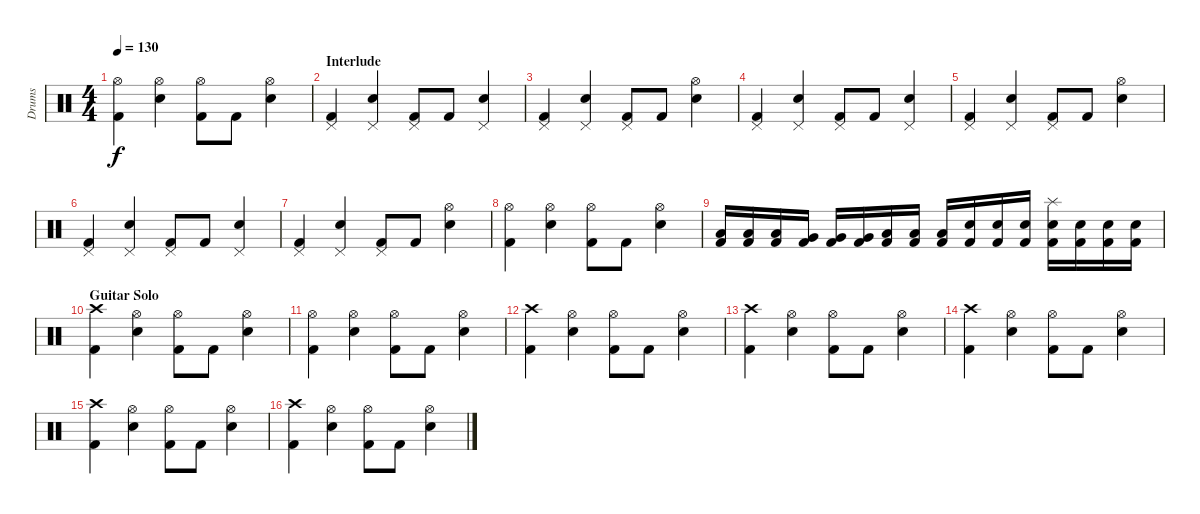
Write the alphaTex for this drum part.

\track ("Drums" "Drums") {instrument percussion}
\staff {score}
\articulation defaults
\ts (4 4)
\tempo 130
\clef neutral
\ks c
("Kick (hit) 2" "Hi-Hat (open)").4{dy f} ("Snare (hit) 2" "Hi-Hat (open)").4 ("Kick (hit) 2" "Hi-Hat (open)").8 "Kick (hit) 2".8 ("Snare (hit) 2" "Hi-Hat (open)").4 |
\section ("" "Interlude")
("Kick (hit) 2" "Pedal Hi-Hat (hit)").4 ("Snare (hit) 2" "Pedal Hi-Hat (hit)").4 ("Kick (hit) 2" "Pedal Hi-Hat (hit)").8 "Kick (hit) 2".8 ("Snare (hit) 2" "Pedal Hi-Hat (hit)").4 |
("Kick (hit) 2" "Pedal Hi-Hat (hit)").4 ("Snare (hit) 2" "Pedal Hi-Hat (hit)").4 ("Kick (hit) 2" "Pedal Hi-Hat (hit)").8 "Kick (hit) 2".8 ("Snare (hit) 2" "Hi-Hat (open)").4 |
("Kick (hit) 2" "Pedal Hi-Hat (hit)").4 ("Snare (hit) 2" "Pedal Hi-Hat (hit)").4 ("Kick (hit) 2" "Pedal Hi-Hat (hit)").8 "Kick (hit) 2".8 ("Snare (hit) 2" "Pedal Hi-Hat (hit)").4 |
("Kick (hit) 2" "Pedal Hi-Hat (hit)").4 ("Snare (hit) 2" "Pedal Hi-Hat (hit)").4 ("Kick (hit) 2" "Pedal Hi-Hat (hit)").8 "Kick (hit) 2".8 ("Snare (hit) 2" "Hi-Hat (open)").4 |
("Kick (hit) 2" "Pedal Hi-Hat (hit)").4 ("Snare (hit) 2" "Pedal Hi-Hat (hit)").4 ("Kick (hit) 2" "Pedal Hi-Hat (hit)").8 "Kick (hit) 2".8 ("Snare (hit) 2" "Pedal Hi-Hat (hit)").4 |
("Kick (hit) 2" "Pedal Hi-Hat (hit)").4 ("Snare (hit) 2" "Pedal Hi-Hat (hit)").4 ("Kick (hit) 2" "Pedal Hi-Hat (hit)").8 "Kick (hit) 2".8 ("Snare (hit) 2" "Hi-Hat (open)").4 |
("Kick (hit) 2" "Hi-Hat (open)").4 ("Snare (hit) 2" "Hi-Hat (open)").4 ("Kick (hit) 2" "Hi-Hat (open)").8 "Kick (hit) 2".8 ("Snare (hit) 2" "Hi-Hat (open)").4 |
("Low Tom (hit)" "Kick (hit) 2").16 ("Low Tom (hit)" "Kick (hit) 2").16 ("Low Tom (hit)" "Kick (hit) 2").16 ("Very Low Tom (hit)" "Kick (hit) 2").16 ("Very Low Tom (hit)" "Kick (hit) 2").16 ("Very Low Tom (hit)" "Kick (hit) 2").16 ("Low Floor Tom (hit)" "Kick (hit) 2").16 ("Low Floor Tom (hit)" "Kick (hit) 2").16 ("Low Floor Tom (hit)" "Kick (hit) 2").16 ("Snare (hit) 2" "Kick (hit) 2").16 ("Snare (hit) 2" "Kick (hit) 2").16 ("Snare (hit) 2" "Kick (hit) 2").16 ("Snare (hit) 2" "Kick (hit) 2" "Splash (hit)").16 ("Snare (hit) 2" "Kick (hit) 2").16 ("Snare (hit) 2" "Kick (hit) 2").16 ("Snare (hit) 2" "Kick (hit) 2").16 |
\section ("" "Guitar Solo")
("Kick (hit) 2" "Crash high (hit)").4 ("Snare (hit) 2" "Hi-Hat (open)").4 ("Kick (hit) 2" "Hi-Hat (open)").8 "Kick (hit) 2".8 ("Snare (hit) 2" "Hi-Hat (open)").4 |
("Kick (hit) 2" "Hi-Hat (open)").4 ("Snare (hit) 2" "Hi-Hat (open)").4 ("Kick (hit) 2" "Hi-Hat (open)").8 "Kick (hit) 2".8 ("Snare (hit) 2" "Hi-Hat (open)").4 |
("Kick (hit) 2" "Crash high (hit)").4 ("Snare (hit) 2" "Hi-Hat (open)").4 ("Kick (hit) 2" "Hi-Hat (open)").8 "Kick (hit) 2".8 ("Snare (hit) 2" "Hi-Hat (open)").4 |
("Kick (hit) 2" "Crash high (hit)").4 ("Snare (hit) 2" "Hi-Hat (open)").4 ("Kick (hit) 2" "Hi-Hat (open)").8 "Kick (hit) 2".8 ("Snare (hit) 2" "Hi-Hat (open)").4 |
("Kick (hit) 2" "Crash high (hit)").4 ("Snare (hit) 2" "Hi-Hat (open)").4 ("Kick (hit) 2" "Hi-Hat (open)").8 "Kick (hit) 2".8 ("Snare (hit) 2" "Hi-Hat (open)").4 |
("Kick (hit) 2" "Crash high (hit)").4 ("Snare (hit) 2" "Hi-Hat (open)").4 ("Kick (hit) 2" "Hi-Hat (open)").8 "Kick (hit) 2".8 ("Snare (hit) 2" "Hi-Hat (open)").4 |
("Kick (hit) 2" "Crash high (hit)").4 ("Snare (hit) 2" "Hi-Hat (open)").4 ("Kick (hit) 2" "Hi-Hat (open)").8 "Kick (hit) 2".8 ("Snare (hit) 2" "Hi-Hat (open)").4
